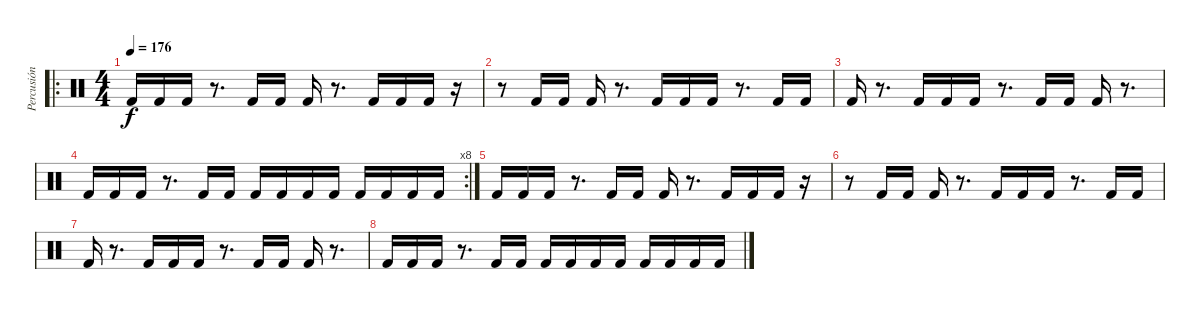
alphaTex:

\track ("Percusión" "Percusión") {instrument percussion}
\staff {score}
\articulation defaults
\ro
\ts (4 4)
\tempo 176
\clef neutral
\ks c "Kick (hit) 2".16{dy f} "Kick (hit) 2".16 "Kick (hit) 2".16
r.8{d} "Kick (hit) 2".16 "Kick (hit) 2".16 "Kick (hit) 2".16 r.8{d} "Kick (hit) 2".16 "Kick (hit) 2".16 "Kick (hit) 2".16 r.16 |
r.8 "Kick (hit) 2".16 "Kick (hit) 2".16 "Kick (hit) 2".16 r.8{d} "Kick (hit) 2".16 "Kick (hit) 2".16 "Kick (hit) 2".16 r.8{d} "Kick (hit) 2".16 "Kick (hit) 2".16 |
"Kick (hit) 2".16 r.8{d} "Kick (hit) 2".16 "Kick (hit) 2".16 "Kick (hit) 2".16 r.8{d} "Kick (hit) 2".16 "Kick (hit) 2".16 "Kick (hit) 2".16 r.8{d} |
\rc 8 "Kick (hit) 2".16 "Kick (hit) 2".16 "Kick (hit) 2".16
r.8{d} "Kick (hit) 2".16 "Kick (hit) 2".16 "Kick (hit) 2".16 "Kick (hit) 2".16 "Kick (hit) 2".16 "Kick (hit) 2".16 "Kick (hit) 2".16 "Kick (hit) 2".16 "Kick (hit) 2".16 "Kick (hit) 2".16 |
"Kick (hit) 2".16 "Kick (hit) 2".16 "Kick (hit) 2".16 r.8{d} "Kick (hit) 2".16 "Kick (hit) 2".16 "Kick (hit) 2".16 r.8{d} "Kick (hit) 2".16 "Kick (hit) 2".16 "Kick (hit) 2".16 r.16 |
r.8 "Kick (hit) 2".16 "Kick (hit) 2".16 "Kick (hit) 2".16 r.8{d} "Kick (hit) 2".16 "Kick (hit) 2".16 "Kick (hit) 2".16 r.8{d} "Kick (hit) 2".16 "Kick (hit) 2".16 |
"Kick (hit) 2".16 r.8{d} "Kick (hit) 2".16 "Kick (hit) 2".16 "Kick (hit) 2".16 r.8{d} "Kick (hit) 2".16 "Kick (hit) 2".16 "Kick (hit) 2".16 r.8{d} |
"Kick (hit) 2".16 "Kick (hit) 2".16 "Kick (hit) 2".16 r.8{d} "Kick (hit) 2".16 "Kick (hit) 2".16 "Kick (hit) 2".16 "Kick (hit) 2".16 "Kick (hit) 2".16 "Kick (hit) 2".16 "Kick (hit) 2".16 "Kick (hit) 2".16 "Kick (hit) 2".16 "Kick (hit) 2".16
